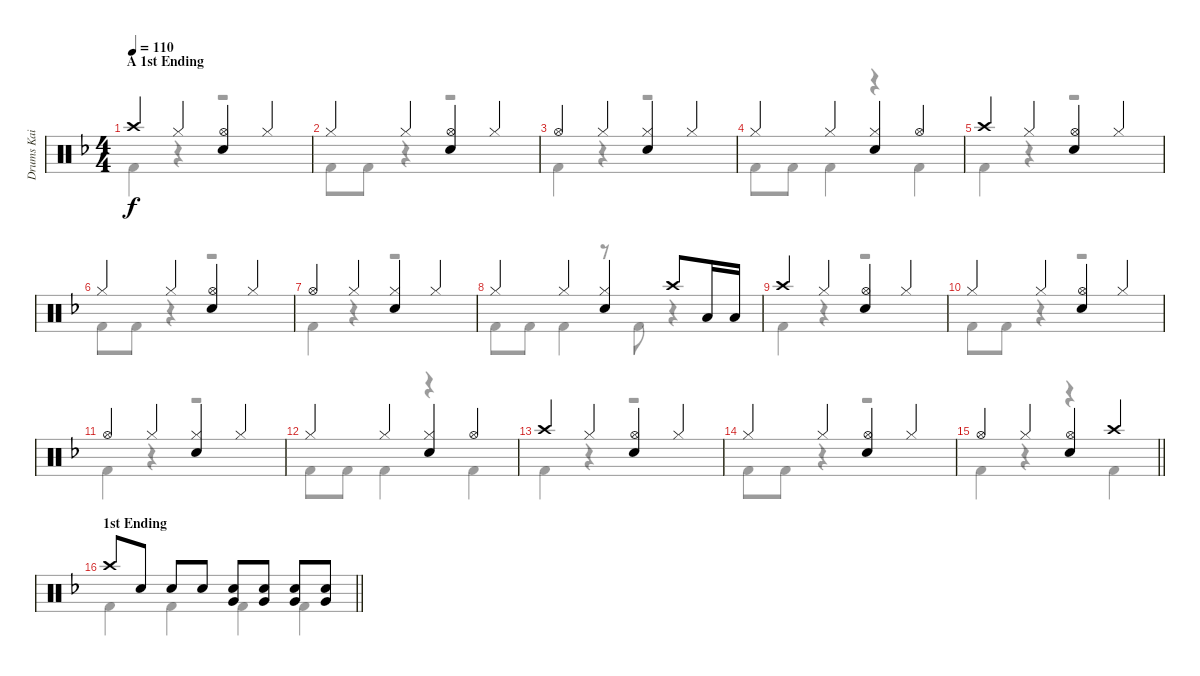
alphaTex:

\track ("Drums Kai" "Drums Kai") {instrument percussion}
\staff {score}
\articulation defaults
\voice
\ts (4 4)
\section ("" "A 1st Ending")
\tempo 110
\clef neutral
\ks f "Crash high (hit)".4{dy f} "Hi-Hat (closed)".4
("Hi-Hat (open)" "Electric Snare (hit)").4 "Hi-Hat (closed)".4 |
"Hi-Hat (closed)".4 "Hi-Hat (closed)".4 ("Hi-Hat (open)" "Electric Snare (hit)").4 "Hi-Hat (closed)".4 |
"Hi-Hat (open)".4 "Hi-Hat (closed)".4 ("Hi-Hat (closed)" "Electric Snare (hit)").4 "Hi-Hat (closed)".4 |
"Hi-Hat (closed)".4 "Hi-Hat (closed)".4 ("Hi-Hat (closed)" "Electric Snare (hit)").4 "Hi-Hat (open)".4 |
"Crash high (hit)".4 "Hi-Hat (closed)".4 ("Hi-Hat (open)" "Electric Snare (hit)").4 "Hi-Hat (closed)".4 |
"Hi-Hat (closed)".4 "Hi-Hat (closed)".4 ("Hi-Hat (open)" "Electric Snare (hit)").4 "Hi-Hat (closed)".4 |
"Hi-Hat (open)".4 "Hi-Hat (closed)".4 ("Hi-Hat (closed)" "Electric Snare (hit)").4 "Hi-Hat (closed)".4 |
"Hi-Hat (closed)".4 "Hi-Hat (closed)".4 ("Hi-Hat (closed)" "Electric Snare (hit)").4 "Crash high (hit)".8 "Low Tom (hit)".16 "Low Tom (hit)".16 |
"Crash high (hit)".4 "Hi-Hat (closed)".4 ("Hi-Hat (open)" "Electric Snare (hit)").4 "Hi-Hat (closed)".4 |
"Hi-Hat (closed)".4 "Hi-Hat (closed)".4 ("Hi-Hat (open)" "Electric Snare (hit)").4 "Hi-Hat (closed)".4 |
"Hi-Hat (open)".4 "Hi-Hat (closed)".4 ("Hi-Hat (closed)" "Electric Snare (hit)").4 "Hi-Hat (closed)".4 |
"Hi-Hat (closed)".4 "Hi-Hat (closed)".4 ("Hi-Hat (closed)" "Electric Snare (hit)").4 "Hi-Hat (open)".4 |
"Crash high (hit)".4 "Hi-Hat (closed)".4 ("Hi-Hat (open)" "Electric Snare (hit)").4 "Hi-Hat (closed)".4 |
"Hi-Hat (closed)".4 "Hi-Hat (closed)".4 ("Hi-Hat (open)" "Electric Snare (hit)").4 "Hi-Hat (closed)".4 |
\barLineRight lightlight "Hi-Hat (open)".4 "Hi-Hat (closed)".4
("Hi-Hat (open)" "Electric Snare (hit)").4 "Crash high (hit)".4 |
\section ("" "1st Ending")
\barLineRight lightlight "Crash high (hit)".8 "Electric Snare (hit)".8 "Electric Snare (hit)".8 "Electric Snare (hit)".8
("Electric Snare (hit)" "Very Low Tom (hit)").8 ("Electric Snare (hit)" "Very Low Tom (hit)").8 ("Electric Snare (hit)" "Very Low Tom (hit)").8 ("Electric Snare (hit)" "Very Low Tom (hit)").8
\voice
\clef neutral
\ottava regular
\simile none
\ks f "Kick (hit) 2".4{dy f}
r.4 r.2 |
"Kick (hit) 2".8 "Kick (hit) 2".8 r.4 r.2 |
"Kick (hit) 2".4 r.4 r.2 |
"Kick (hit) 2".8 "Kick (hit) 2".8 "Kick (hit) 2".4 r.4 "Kick (hit) 2".4 |
"Kick (hit) 2".4 r.4 r.2 |
"Kick (hit) 2".8 "Kick (hit) 2".8 r.4 r.2 |
"Kick (hit) 2".4 r.4 r.2 |
"Kick (hit) 2".8 "Kick (hit) 2".8 "Kick (hit) 2".4 r.8 "Kick (hit) 2".8 r.4 |
"Kick (hit) 2".4 r.4 r.2 |
"Kick (hit) 2".8 "Kick (hit) 2".8 r.4 r.2 |
"Kick (hit) 2".4 r.4 r.2 |
"Kick (hit) 2".8 "Kick (hit) 2".8 "Kick (hit) 2".4 r.4 "Kick (hit) 2".4 |
"Kick (hit) 2".4 r.4 r.2 |
"Kick (hit) 2".8 "Kick (hit) 2".8 r.4 r.2 |
\barLineRight lightlight "Kick (hit) 2".4
r.4 r.4 "Kick (hit) 2".4 |
\barLineRight lightlight "Kick (hit) 2".4 "Kick (hit) 2".4 "Kick (hit) 2".4 "Kick (hit) 2".4
